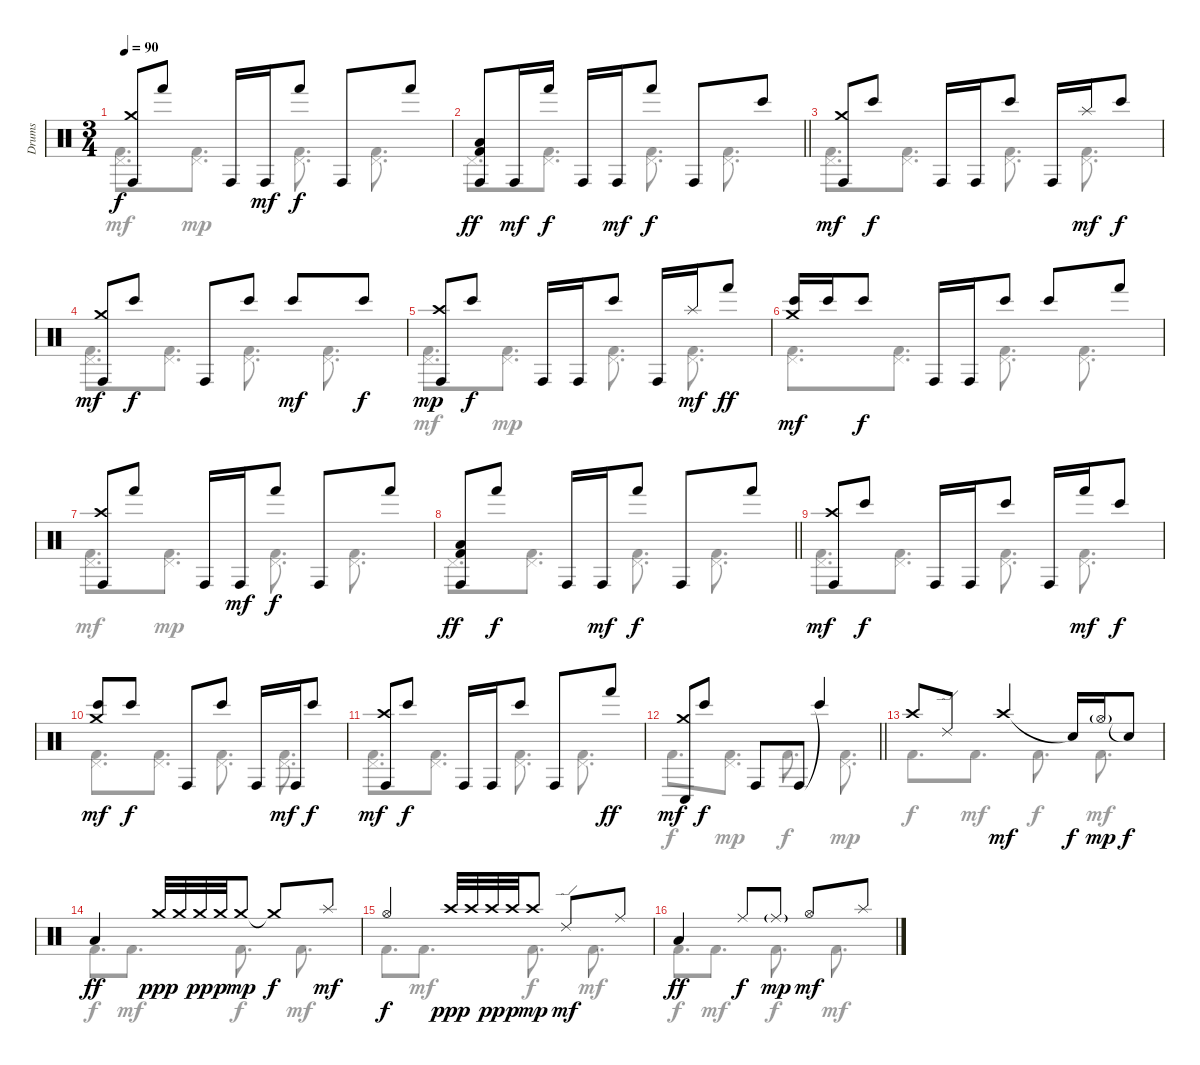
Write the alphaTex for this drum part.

\track ("Drums" "Drums") {instrument percussion}
\staff {score}
\articulation defaults
\voice
\ts (3 4)
\tempo 90
\clef neutral
\ks c
("Crash medium (hit)" "Conga high (hit)").8{dy f} "Hand (hit)".8 "Conga high (hit)".16 "Conga high (hit)".16{dy mf} "Hand (hit)".8{dy f} "Conga high (hit)".8 "Hand (hit)".8 |
\barLineRight lightlight
("Conga high (hit)" "Low Tom (hit)" "Kick (hit) 2").8{dy ff} "Conga high (hit)".16{dy mf} "Hand (hit)".16{dy f} "Conga high (hit)".16 "Conga high (hit)".16{dy mf} "Hand (hit)".8{dy f} "Conga high (hit)".8 "Bongo High (hit)".8 |
\section ("" "")
("Crash medium (hit)" "Conga high (hit)").8{dy mf} "Bongo High (hit)".8{dy f} "Conga high (hit)".16 "Conga high (hit)".16 "Bongo High (hit)".8 "Conga high (hit)".16 "Splash (hit)".16{dy mf} "Bongo High (hit)".8{dy f} |
("Crash medium (hit)" "Conga high (hit)").8{dy mf} "Bongo High (hit)".8{dy f} "Conga high (hit)".8 "Bongo High (hit)".8 "Bongo High (hit)".8{dy mf} "Bongo High (hit)".8{dy f} |
("Crash high (hit)" "Conga high (hit)").8{dy mp} "Bongo High (hit)".8{dy f} "Conga high (hit)".16 "Conga high (hit)".16 "Bongo High (hit)".8 "Conga high (hit)".16 "Splash (hit)".16{dy mf} "Hand (hit)".8{dy ff} |
("Crash medium (hit)" "Bongo High (hit)").16{dy mf} "Bongo High (hit)".16 "Bongo High (hit)".8{dy f} "Conga high (hit)".16 "Conga high (hit)".16 "Bongo High (hit)".8 "Bongo High (hit)".8 "Hand (hit)".8 |
("Crash high (hit)" "Conga high (hit)").8 "Hand (hit)".8 "Conga high (hit)".16 "Conga high (hit)".16{dy mf} "Hand (hit)".8{dy f} "Conga high (hit)".8 "Hand (hit)".8 |
\barLineRight lightlight
("Conga high (hit)" "Low Tom (hit)" "Kick (hit) 2").8{dy ff} "Hand (hit)".8{dy f} "Conga high (hit)".16 "Conga high (hit)".16{dy mf} "Hand (hit)".8{dy f} "Conga high (hit)".8 "Hand (hit)".8 |
("Crash high (hit)" "Conga high (hit)").8{dy mf} "Bongo High (hit)".8{dy f} "Conga high (hit)".16 "Conga high (hit)".16 "Bongo High (hit)".8 "Conga high (hit)".16 "Hand (hit)".16{dy mf} "Bongo High (hit)".8{dy f} |
("Crash medium (hit)" "Bongo High (hit)").8{dy mf} "Bongo High (hit)".8{dy f} "Conga high (hit)".8 "Bongo High (hit)".8 "Conga high (hit)".16 "Conga high (hit)".16{dy mf} "Bongo High (hit)".8{dy f} |
("Crash high (hit)" "Conga high (hit)").8{dy mf} "Bongo High (hit)".8{dy f} "Conga high (hit)".16 "Conga high (hit)".16 "Bongo High (hit)".8 "Conga high (hit)".8 "Hand (hit)".8{dy ff} |
\barLineRight lightlight
("Crash medium (hit)" "Conga low (hit)").8{dy mf} "Bongo High (hit)".8{dy f} "Conga high (hit)".8 "Conga high (hit)".8 "Bongo High (hit)"{t}.4 |
\section ("" "")
"Crash high (hit)".8 "Ride (edge) 2".8 "Crash high (hit)".4{dy mf} "Snare (hit)"{t}.16{dy f} "Hi-Hat (open)"{g}.16{dy mp} "Snare (hit)"{t}.8{dy f} |
"Low Tom (hit)".4{dy ff} "Crash medium (hit)".32{dy ppp} "Crash medium (hit)".32 "Crash medium (hit)".32{dy pp} "Crash medium (hit)".32{dy p} "Crash medium (hit)".8{dy mp} "Crash medium (hit)"{t}.8{dy f} "Splash (hit)".8{dy mf} |
"Hi-Hat (open)".4{dy f} "Crash high (hit)".32{dy ppp} "Crash high (hit)".32 "Crash high (hit)".32{dy pp} "Crash high (hit)".32{dy p} "Crash high (hit)".8{dy mp} "Ride (edge) 2".8{dy mf} "Ride (middle)".8 |
"Low Tom (hit)".4{dy ff} "Ride (middle)".8{dy f} "Ride (middle)"{g}.8{dy mp} "Hi-Hat (open)".8{dy mf} "Splash (hit)".8
\voice
\clef neutral
\ottava regular
\simile none
\ks c
("Pedal Hi-Hat (hit)" "Kick (hit) 2").8{d dy mf} ("Pedal Hi-Hat (hit)" "Kick (hit) 2").8{d dy mp} ("Pedal Hi-Hat (hit)" "Kick (hit) 2").8{d} ("Pedal Hi-Hat (hit)" "Kick (hit) 2").8{d} |
\barLineRight lightlight "Pedal Hi-Hat (hit)".8{d}
("Pedal Hi-Hat (hit)" "Kick (hit) 2").8{d} ("Pedal Hi-Hat (hit)" "Kick (hit) 2").8{d} ("Pedal Hi-Hat (hit)" "Kick (hit) 2").8{d} |
("Pedal Hi-Hat (hit)" "Kick (hit) 2").8{d} ("Pedal Hi-Hat (hit)" "Kick (hit) 2").8{d} ("Pedal Hi-Hat (hit)" "Kick (hit) 2").8{d} ("Pedal Hi-Hat (hit)" "Kick (hit) 2").8{d} |
("Pedal Hi-Hat (hit)" "Kick (hit) 2").8{d} ("Pedal Hi-Hat (hit)" "Kick (hit) 2").8{d} ("Pedal Hi-Hat (hit)" "Kick (hit) 2").8{d} ("Pedal Hi-Hat (hit)" "Kick (hit) 2").8{d} |
("Pedal Hi-Hat (hit)" "Kick (hit) 2").8{d dy mf} ("Pedal Hi-Hat (hit)" "Kick (hit) 2").8{d dy mp} ("Pedal Hi-Hat (hit)" "Kick (hit) 2").8{d} ("Pedal Hi-Hat (hit)" "Kick (hit) 2").8{d} |
("Pedal Hi-Hat (hit)" "Kick (hit) 2").8{d} ("Pedal Hi-Hat (hit)" "Kick (hit) 2").8{d} ("Pedal Hi-Hat (hit)" "Kick (hit) 2").8{d} ("Pedal Hi-Hat (hit)" "Kick (hit) 2").8{d} |
("Pedal Hi-Hat (hit)" "Kick (hit) 2").8{d dy mf} ("Pedal Hi-Hat (hit)" "Kick (hit) 2").8{d dy mp} ("Pedal Hi-Hat (hit)" "Kick (hit) 2").8{d} ("Pedal Hi-Hat (hit)" "Kick (hit) 2").8{d} |
\barLineRight lightlight "Pedal Hi-Hat (hit)".8{d}
("Pedal Hi-Hat (hit)" "Kick (hit) 2").8{d} ("Pedal Hi-Hat (hit)" "Kick (hit) 2").8{d} ("Pedal Hi-Hat (hit)" "Kick (hit) 2").8{d} |
("Pedal Hi-Hat (hit)" "Kick (hit) 2").8{d} ("Pedal Hi-Hat (hit)" "Kick (hit) 2").8{d} ("Pedal Hi-Hat (hit)" "Kick (hit) 2").8{d} ("Pedal Hi-Hat (hit)" "Kick (hit) 2").8{d} |
("Pedal Hi-Hat (hit)" "Kick (hit) 2").8{d} ("Pedal Hi-Hat (hit)" "Kick (hit) 2").8{d} ("Pedal Hi-Hat (hit)" "Kick (hit) 2").8{d} ("Pedal Hi-Hat (hit)" "Kick (hit) 2").8{d} |
("Pedal Hi-Hat (hit)" "Kick (hit) 2").8{d} ("Pedal Hi-Hat (hit)" "Kick (hit) 2").8{d} ("Pedal Hi-Hat (hit)" "Kick (hit) 2").8{d} ("Pedal Hi-Hat (hit)" "Kick (hit) 2").8{d} |
\barLineRight lightlight "Kick (hit) 2".8{d dy f}
("Pedal Hi-Hat (hit)" "Kick (hit) 2").8{d dy mp} "Kick (hit) 2".8{d dy f} ("Pedal Hi-Hat (hit)" "Kick (hit) 2").8{d dy mp} |
"Kick (hit) 2".8{d dy f} "Kick (hit) 2".8{d dy mf} "Kick (hit) 2".8{d dy f} "Kick (hit) 2".8{d dy mf} |
"Kick (hit) 2".8{d dy f} "Kick (hit) 2".8{d dy mf} "Kick (hit) 2".8{d dy f} "Kick (hit) 2".8{d dy mf} |
"Kick (hit) 2".8{d dy f} "Kick (hit) 2".8{d dy mf} "Kick (hit) 2".8{d dy f} "Kick (hit) 2".8{d dy mf} |
"Kick (hit) 2".8{d dy f} "Kick (hit) 2".8{d dy mf} "Kick (hit) 2".8{d dy f} "Kick (hit) 2".8{d dy mf}
